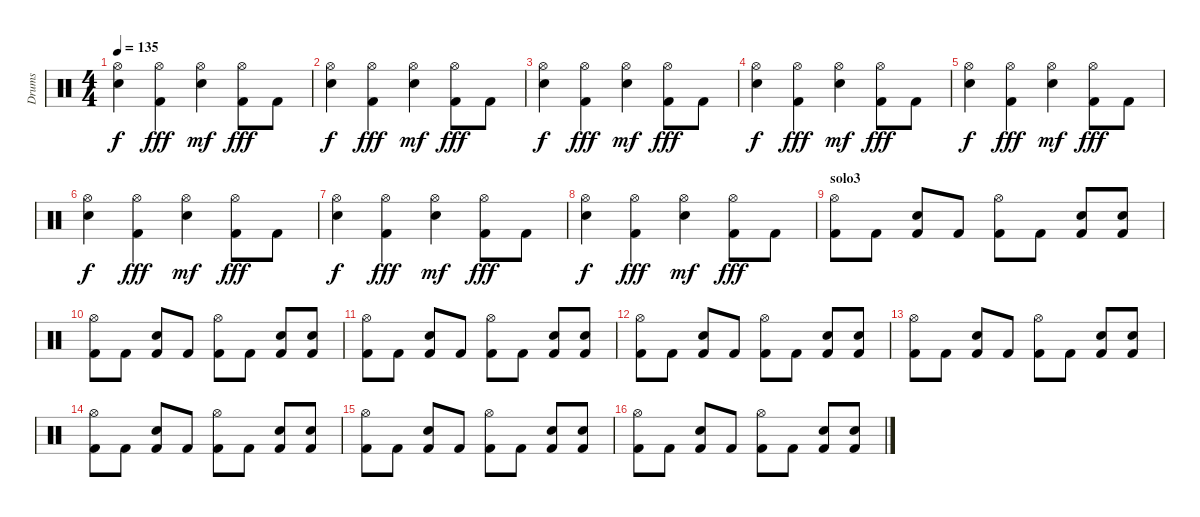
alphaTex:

\track ("Drums" "Drums") {instrument percussion}
\staff {score}
\articulation defaults
\ts (4 4)
\tempo 135
\clef neutral
\ks c
("Hi-Hat (open)" "Electric Snare (hit)").4{dy f} ("Hi-Hat (open)" "Kick (hit) 2").4{dy fff} ("Hi-Hat (open)" "Electric Snare (hit)").4{dy mf} ("Hi-Hat (open)" "Kick (hit) 2").8{dy fff} "Kick (hit) 2".8 |
("Hi-Hat (open)" "Electric Snare (hit)").4{dy f} ("Hi-Hat (open)" "Kick (hit) 2").4{dy fff} ("Hi-Hat (open)" "Electric Snare (hit)").4{dy mf} ("Hi-Hat (open)" "Kick (hit) 2").8{dy fff} "Kick (hit) 2".8 |
("Hi-Hat (open)" "Electric Snare (hit)").4{dy f} ("Hi-Hat (open)" "Kick (hit) 2").4{dy fff} ("Hi-Hat (open)" "Electric Snare (hit)").4{dy mf} ("Hi-Hat (open)" "Kick (hit) 2").8{dy fff} "Kick (hit) 2".8 |
("Hi-Hat (open)" "Electric Snare (hit)").4{dy f} ("Hi-Hat (open)" "Kick (hit) 2").4{dy fff} ("Hi-Hat (open)" "Electric Snare (hit)").4{dy mf} ("Hi-Hat (open)" "Kick (hit) 2").8{dy fff} "Kick (hit) 2".8 |
("Hi-Hat (open)" "Electric Snare (hit)").4{dy f} ("Hi-Hat (open)" "Kick (hit) 2").4{dy fff} ("Hi-Hat (open)" "Electric Snare (hit)").4{dy mf} ("Hi-Hat (open)" "Kick (hit) 2").8{dy fff} "Kick (hit) 2".8 |
("Hi-Hat (open)" "Electric Snare (hit)").4{dy f} ("Hi-Hat (open)" "Kick (hit) 2").4{dy fff} ("Hi-Hat (open)" "Electric Snare (hit)").4{dy mf} ("Hi-Hat (open)" "Kick (hit) 2").8{dy fff} "Kick (hit) 2".8 |
("Hi-Hat (open)" "Electric Snare (hit)").4{dy f} ("Hi-Hat (open)" "Kick (hit) 2").4{dy fff} ("Hi-Hat (open)" "Electric Snare (hit)").4{dy mf} ("Hi-Hat (open)" "Kick (hit) 2").8{dy fff} "Kick (hit) 2".8 |
("Hi-Hat (open)" "Electric Snare (hit)").4{dy f} ("Hi-Hat (open)" "Kick (hit) 2").4{dy fff} ("Hi-Hat (open)" "Electric Snare (hit)").4{dy mf} ("Hi-Hat (open)" "Kick (hit) 2").8{dy fff} "Kick (hit) 2".8 |
\section ("" "solo3")
("Hi-Hat (open)" "Kick (hit) 2").8 "Kick (hit) 2".8 ("Electric Snare (hit)" "Kick (hit) 2").8 "Kick (hit) 2".8 ("Hi-Hat (open)" "Kick (hit) 2").8 "Kick (hit) 2".8 ("Electric Snare (hit)" "Kick (hit) 2").8 ("Electric Snare (hit)" "Kick (hit) 2").8 |
("Hi-Hat (open)" "Kick (hit) 2").8 "Kick (hit) 2".8 ("Electric Snare (hit)" "Kick (hit) 2").8 "Kick (hit) 2".8 ("Hi-Hat (open)" "Kick (hit) 2").8 "Kick (hit) 2".8 ("Electric Snare (hit)" "Kick (hit) 2").8 ("Electric Snare (hit)" "Kick (hit) 2").8 |
("Hi-Hat (open)" "Kick (hit) 2").8 "Kick (hit) 2".8 ("Electric Snare (hit)" "Kick (hit) 2").8 "Kick (hit) 2".8 ("Hi-Hat (open)" "Kick (hit) 2").8 "Kick (hit) 2".8 ("Electric Snare (hit)" "Kick (hit) 2").8 ("Electric Snare (hit)" "Kick (hit) 2").8 |
("Hi-Hat (open)" "Kick (hit) 2").8 "Kick (hit) 2".8 ("Electric Snare (hit)" "Kick (hit) 2").8 "Kick (hit) 2".8 ("Hi-Hat (open)" "Kick (hit) 2").8 "Kick (hit) 2".8 ("Electric Snare (hit)" "Kick (hit) 2").8 ("Electric Snare (hit)" "Kick (hit) 2").8 |
("Hi-Hat (open)" "Kick (hit) 2").8 "Kick (hit) 2".8 ("Electric Snare (hit)" "Kick (hit) 2").8 "Kick (hit) 2".8 ("Hi-Hat (open)" "Kick (hit) 2").8 "Kick (hit) 2".8 ("Electric Snare (hit)" "Kick (hit) 2").8 ("Electric Snare (hit)" "Kick (hit) 2").8 |
("Hi-Hat (open)" "Kick (hit) 2").8 "Kick (hit) 2".8 ("Electric Snare (hit)" "Kick (hit) 2").8 "Kick (hit) 2".8 ("Hi-Hat (open)" "Kick (hit) 2").8 "Kick (hit) 2".8 ("Electric Snare (hit)" "Kick (hit) 2").8 ("Electric Snare (hit)" "Kick (hit) 2").8 |
("Hi-Hat (open)" "Kick (hit) 2").8 "Kick (hit) 2".8 ("Electric Snare (hit)" "Kick (hit) 2").8 "Kick (hit) 2".8 ("Hi-Hat (open)" "Kick (hit) 2").8 "Kick (hit) 2".8 ("Electric Snare (hit)" "Kick (hit) 2").8 ("Electric Snare (hit)" "Kick (hit) 2").8 |
("Hi-Hat (open)" "Kick (hit) 2").8 "Kick (hit) 2".8 ("Electric Snare (hit)" "Kick (hit) 2").8 "Kick (hit) 2".8 ("Hi-Hat (open)" "Kick (hit) 2").8 "Kick (hit) 2".8 ("Electric Snare (hit)" "Kick (hit) 2").8 ("Electric Snare (hit)" "Kick (hit) 2").8
